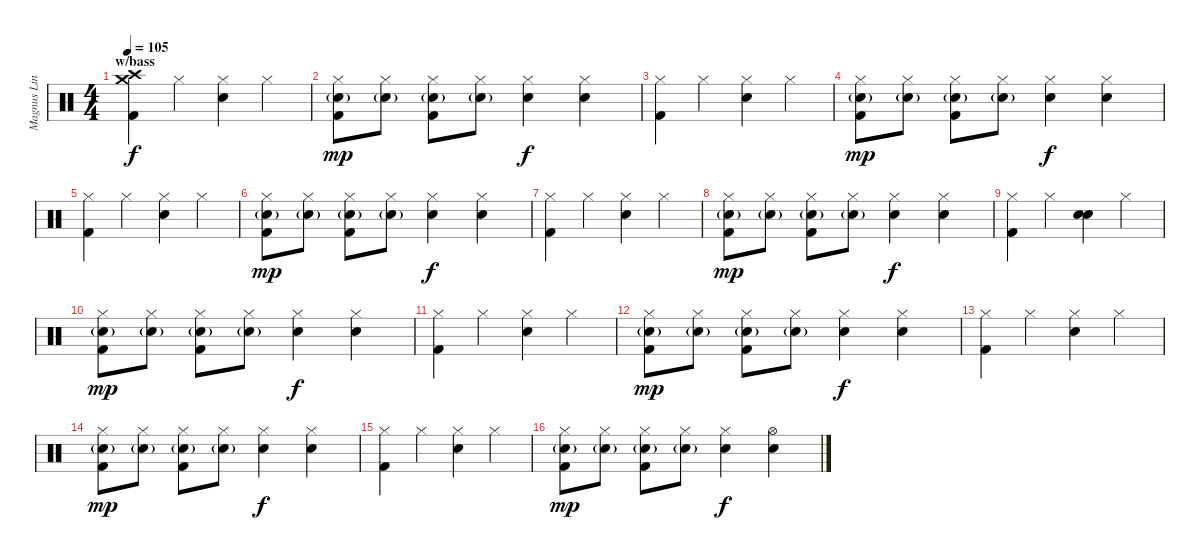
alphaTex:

\track ("Magnus Lindberg" "Magnus Lin") {instrument percussion}
\staff {score}
\articulation defaults
\ts (4 4)
\section ("" "w/bass")
\tempo 105
\clef neutral
\ks c
("Crash medium (hit)" "Crash high (hit)" "Kick (hit) 2").4{dy f} "Hi-Hat (closed)".4 ("Hi-Hat (closed)" "Snare (hit) 2").4 "Hi-Hat (closed)".4 |
("Hi-Hat (closed)" "Snare (hit) 2"{g} "Kick (hit) 2").8{dy mp} ("Hi-Hat (closed)" "Snare (hit) 2"{g}).8 ("Hi-Hat (closed)" "Snare (hit) 2"{g} "Kick (hit) 2").8 ("Hi-Hat (closed)" "Snare (hit) 2"{g}).8 ("Hi-Hat (closed)" "Snare (hit) 2").4{dy f} ("Hi-Hat (closed)" "Snare (hit) 2").4 |
("Hi-Hat (closed)" "Kick (hit) 2").4 "Hi-Hat (closed)".4 ("Hi-Hat (closed)" "Snare (hit) 2").4 "Hi-Hat (closed)".4 |
("Hi-Hat (closed)" "Snare (hit) 2"{g} "Kick (hit) 2").8{dy mp} ("Hi-Hat (closed)" "Snare (hit) 2"{g}).8 ("Hi-Hat (closed)" "Snare (hit) 2"{g} "Kick (hit) 2").8 ("Hi-Hat (closed)" "Snare (hit) 2"{g}).8 ("Hi-Hat (closed)" "Snare (hit) 2").4{dy f} ("Hi-Hat (closed)" "Snare (hit) 2").4 |
("Hi-Hat (closed)" "Kick (hit) 2").4 "Hi-Hat (closed)".4 ("Hi-Hat (closed)" "Snare (hit) 2").4 "Hi-Hat (closed)".4 |
("Hi-Hat (closed)" "Snare (hit) 2"{g} "Kick (hit) 2").8{dy mp} ("Hi-Hat (closed)" "Snare (hit) 2"{g}).8 ("Hi-Hat (closed)" "Snare (hit) 2"{g} "Kick (hit) 2").8 ("Hi-Hat (closed)" "Snare (hit) 2"{g}).8 ("Hi-Hat (closed)" "Snare (hit) 2").4{dy f} ("Hi-Hat (closed)" "Snare (hit) 2").4 |
("Hi-Hat (closed)" "Kick (hit) 2").4 "Hi-Hat (closed)".4 ("Hi-Hat (closed)" "Snare (hit) 2").4 "Hi-Hat (closed)".4 |
("Hi-Hat (closed)" "Snare (hit) 2"{g} "Kick (hit) 2").8{dy mp} ("Hi-Hat (closed)" "Snare (hit) 2"{g}).8 ("Hi-Hat (closed)" "Snare (hit) 2"{g} "Kick (hit) 2").8 ("Hi-Hat (closed)" "Snare (hit) 2"{g}).8 ("Hi-Hat (closed)" "Snare (hit) 2").4{dy f} ("Hi-Hat (closed)" "Snare (hit) 2").4 |
("Hi-Hat (closed)" "Kick (hit) 2").4 "Hi-Hat (closed)".4 ("Snare (hit)" "Snare (hit) 2").4 "Hi-Hat (closed)".4 |
("Hi-Hat (closed)" "Snare (hit) 2"{g} "Kick (hit) 2").8{dy mp} ("Hi-Hat (closed)" "Snare (hit) 2"{g}).8 ("Hi-Hat (closed)" "Snare (hit) 2"{g} "Kick (hit) 2").8 ("Hi-Hat (closed)" "Snare (hit) 2"{g}).8 ("Hi-Hat (closed)" "Snare (hit) 2").4{dy f} ("Hi-Hat (closed)" "Snare (hit) 2").4 |
("Hi-Hat (closed)" "Kick (hit) 2").4 "Hi-Hat (closed)".4 ("Hi-Hat (closed)" "Snare (hit) 2").4 "Hi-Hat (closed)".4 |
("Hi-Hat (closed)" "Snare (hit) 2"{g} "Kick (hit) 2").8{dy mp} ("Hi-Hat (closed)" "Snare (hit) 2"{g}).8 ("Hi-Hat (closed)" "Snare (hit) 2"{g} "Kick (hit) 2").8 ("Hi-Hat (closed)" "Snare (hit) 2"{g}).8 ("Hi-Hat (closed)" "Snare (hit) 2").4{dy f} ("Hi-Hat (closed)" "Snare (hit) 2").4 |
("Hi-Hat (closed)" "Kick (hit) 2").4 "Hi-Hat (closed)".4 ("Hi-Hat (closed)" "Snare (hit) 2").4 "Hi-Hat (closed)".4 |
("Hi-Hat (closed)" "Snare (hit) 2"{g} "Kick (hit) 2").8{dy mp} ("Hi-Hat (closed)" "Snare (hit) 2"{g}).8 ("Hi-Hat (closed)" "Snare (hit) 2"{g} "Kick (hit) 2").8 ("Hi-Hat (closed)" "Snare (hit) 2"{g}).8 ("Hi-Hat (closed)" "Snare (hit) 2").4{dy f} ("Hi-Hat (closed)" "Snare (hit) 2").4 |
("Hi-Hat (closed)" "Kick (hit) 2").4 "Hi-Hat (closed)".4 ("Hi-Hat (closed)" "Snare (hit) 2").4 "Hi-Hat (closed)".4 |
("Hi-Hat (closed)" "Snare (hit) 2"{g} "Kick (hit) 2").8{dy mp} ("Hi-Hat (closed)" "Snare (hit) 2"{g}).8 ("Hi-Hat (closed)" "Snare (hit) 2"{g} "Kick (hit) 2").8 ("Hi-Hat (closed)" "Snare (hit) 2"{g}).8 ("Hi-Hat (closed)" "Snare (hit) 2").4{dy f} ("Hi-Hat (open)" "Snare (hit) 2").4
